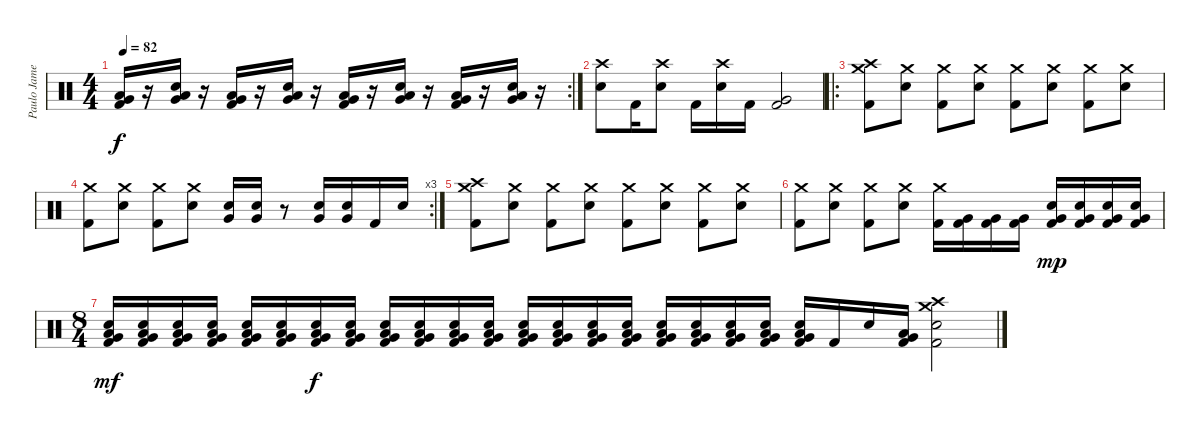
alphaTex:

\track ("Paulo James" "Paulo Jame") {instrument percussion}
\staff {score}
\articulation defaults
\rc 2
\ts (4 4)
\tempo 82
\clef neutral
\ks c
("Very Low Tom (hit)" "Low Floor Tom (hit)" "Kick (hit) 2").16{dy f} r.16 ("Very Low Tom (hit)" "Electric Snare (hit)" "Low Floor Tom (hit)").16 r.16 ("Very Low Tom (hit)" "Low Floor Tom (hit)" "Kick (hit) 2").16 r.16 ("Very Low Tom (hit)" "Electric Snare (hit)" "Low Floor Tom (hit)").16 r.16 ("Very Low Tom (hit)" "Low Floor Tom (hit)" "Kick (hit) 2").16 r.16 ("Very Low Tom (hit)" "Electric Snare (hit)" "Low Floor Tom (hit)").16 r.16 ("Very Low Tom (hit)" "Low Floor Tom (hit)" "Kick (hit) 2").16 r.16 ("Very Low Tom (hit)" "Electric Snare (hit)" "Low Floor Tom (hit)").16 r.16 |
("Crash high (hit)" "Electric Snare (hit)").8 "Kick (hit) 2".16 ("Crash high (hit)" "Electric Snare (hit)").8 "Kick (hit) 2".16 ("Crash high (hit)" "Electric Snare (hit)").16 "Kick (hit) 2".16 ("Very Low Tom (hit)" "Kick (hit) 2").2 |
\ro
("Crash high (hit)" "Crash medium (hit)" "Kick (hit) 2").8 ("Crash medium (hit)" "Electric Snare (hit)").8 ("Crash medium (hit)" "Kick (hit) 2").8 ("Crash medium (hit)" "Electric Snare (hit)").8 ("Crash medium (hit)" "Kick (hit) 2").8 ("Crash medium (hit)" "Electric Snare (hit)").8 ("Crash medium (hit)" "Kick (hit) 2").8 ("Crash medium (hit)" "Electric Snare (hit)").8 |
\rc 3
("Crash medium (hit)" "Kick (hit) 2").8 ("Crash medium (hit)" "Electric Snare (hit)").8 ("Crash medium (hit)" "Kick (hit) 2").8 ("Crash medium (hit)" "Electric Snare (hit)").8 ("Very Low Tom (hit)" "Electric Snare (hit)").16 ("Very Low Tom (hit)" "Electric Snare (hit)").16 r.8 ("Very Low Tom (hit)" "Electric Snare (hit)").16 ("Very Low Tom (hit)" "Electric Snare (hit)").16 "Kick (hit) 2".16 "Electric Snare (hit)".16 |
("Crash high (hit)" "Crash medium (hit)" "Kick (hit) 2").8 ("Crash medium (hit)" "Electric Snare (hit)").8 ("Crash medium (hit)" "Kick (hit) 2").8 ("Crash medium (hit)" "Electric Snare (hit)").8 ("Crash medium (hit)" "Kick (hit) 2").8 ("Crash medium (hit)" "Electric Snare (hit)").8 ("Crash medium (hit)" "Kick (hit) 2").8 ("Crash medium (hit)" "Electric Snare (hit)").8 |
("Crash medium (hit)" "Kick (hit) 2").8 ("Crash medium (hit)" "Electric Snare (hit)").8 ("Crash medium (hit)" "Kick (hit) 2").8 ("Crash medium (hit)" "Electric Snare (hit)").8 ("Crash medium (hit)" "Kick (hit) 2").16 ("Very Low Tom (hit)" "Kick (hit) 2").16 ("Very Low Tom (hit)" "Kick (hit) 2").16 ("Very Low Tom (hit)" "Kick (hit) 2").16 ("Very Low Tom (hit)" "Electric Snare (hit)" "Kick (hit) 2").16{dy mp} ("Very Low Tom (hit)" "Electric Snare (hit)" "Kick (hit) 2").16 ("Very Low Tom (hit)" "Electric Snare (hit)" "Kick (hit) 2").16 ("Very Low Tom (hit)" "Electric Snare (hit)" "Kick (hit) 2").16 |
\ts (8 4)
("Very Low Tom (hit)" "Electric Snare (hit)" "Kick (hit) 2" "Low Floor Tom (hit)").16{dy mf} ("Very Low Tom (hit)" "Electric Snare (hit)" "Kick (hit) 2" "Low Floor Tom (hit)").16 ("Very Low Tom (hit)" "Electric Snare (hit)" "Kick (hit) 2" "Low Floor Tom (hit)").16 ("Very Low Tom (hit)" "Electric Snare (hit)" "Kick (hit) 2" "Low Floor Tom (hit)").16 ("Very Low Tom (hit)" "Electric Snare (hit)" "Kick (hit) 2" "Low Floor Tom (hit)").16 ("Very Low Tom (hit)" "Electric Snare (hit)" "Kick (hit) 2" "Low Floor Tom (hit)").16 ("Very Low Tom (hit)" "Electric Snare (hit)" "Kick (hit) 2" "Low Floor Tom (hit)").16{dy f} ("Very Low Tom (hit)" "Electric Snare (hit)" "Kick (hit) 2" "Low Floor Tom (hit)").16 ("Very Low Tom (hit)" "Electric Snare (hit)" "Kick (hit) 2" "Low Floor Tom (hit)").16 ("Very Low Tom (hit)" "Electric Snare (hit)" "Kick (hit) 2" "Low Floor Tom (hit)").16 ("Very Low Tom (hit)" "Electric Snare (hit)" "Kick (hit) 2" "Low Floor Tom (hit)").16 ("Very Low Tom (hit)" "Electric Snare (hit)" "Kick (hit) 2" "Low Floor Tom (hit)").16 ("Very Low Tom (hit)" "Electric Snare (hit)" "Kick (hit) 2" "Low Floor Tom (hit)").16 ("Very Low Tom (hit)" "Electric Snare (hit)" "Kick (hit) 2" "Low Floor Tom (hit)").16 ("Very Low Tom (hit)" "Electric Snare (hit)" "Kick (hit) 2" "Low Floor Tom (hit)").16 ("Very Low Tom (hit)" "Electric Snare (hit)" "Kick (hit) 2" "Low Floor Tom (hit)").16 ("Very Low Tom (hit)" "Electric Snare (hit)" "Kick (hit) 2" "Low Floor Tom (hit)").16 ("Very Low Tom (hit)" "Electric Snare (hit)" "Kick (hit) 2" "Low Floor Tom (hit)").16 ("Very Low Tom (hit)" "Electric Snare (hit)" "Kick (hit) 2" "Low Floor Tom (hit)").16 ("Very Low Tom (hit)" "Electric Snare (hit)" "Kick (hit) 2" "Low Floor Tom (hit)").16 ("Very Low Tom (hit)" "Electric Snare (hit)" "Kick (hit) 2" "Low Floor Tom (hit)").16 "Kick (hit) 2".16 "Electric Snare (hit)".16 ("Very Low Tom (hit)" "Kick (hit) 2" "Low Floor Tom (hit)").16 ("Crash high (hit)" "Crash medium (hit)" "Electric Snare (hit)" "Kick (hit) 2").2
